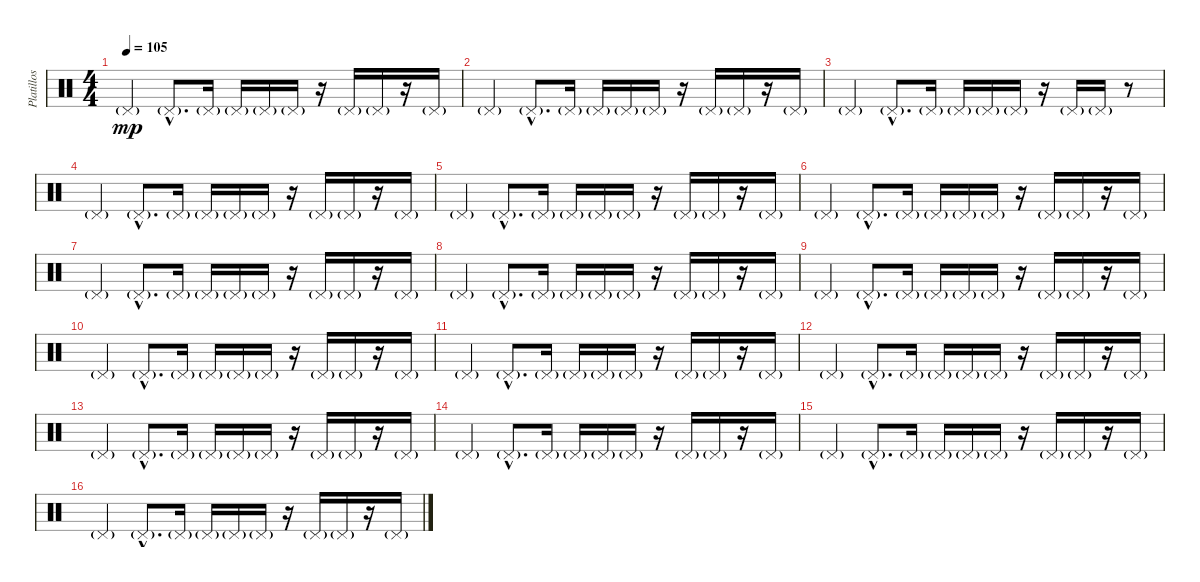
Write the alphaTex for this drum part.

\track ("Platillos" "Platillos") {instrument percussion}
\staff {score}
\articulation defaults
\ts (4 4)
\tempo 105
\clef neutral
\ks c "Pedal Hi-Hat (hit)"{g}.4{dy mp} "Pedal Hi-Hat (hit)"{g hac}.8{d} "Pedal Hi-Hat (hit)"{g}.16 "Pedal Hi-Hat (hit)"{g}.16 "Pedal Hi-Hat (hit)"{g}.16 "Pedal Hi-Hat (hit)"{g}.16
r.16 "Pedal Hi-Hat (hit)"{g}.16 "Pedal Hi-Hat (hit)"{g}.16 r.16 "Pedal Hi-Hat (hit)"{g}.16 |
"Pedal Hi-Hat (hit)"{g}.4 "Pedal Hi-Hat (hit)"{g hac}.8{d} "Pedal Hi-Hat (hit)"{g}.16 "Pedal Hi-Hat (hit)"{g}.16 "Pedal Hi-Hat (hit)"{g}.16 "Pedal Hi-Hat (hit)"{g}.16 r.16 "Pedal Hi-Hat (hit)"{g}.16 "Pedal Hi-Hat (hit)"{g}.16 r.16 "Pedal Hi-Hat (hit)"{g}.16 |
"Pedal Hi-Hat (hit)"{g}.4 "Pedal Hi-Hat (hit)"{g hac}.8{d} "Pedal Hi-Hat (hit)"{g}.16 "Pedal Hi-Hat (hit)"{g}.16 "Pedal Hi-Hat (hit)"{g}.16 "Pedal Hi-Hat (hit)"{g}.16 r.16 "Pedal Hi-Hat (hit)"{g}.16 "Pedal Hi-Hat (hit)"{g}.16 r.8 |
"Pedal Hi-Hat (hit)"{g}.4 "Pedal Hi-Hat (hit)"{g hac}.8{d} "Pedal Hi-Hat (hit)"{g}.16 "Pedal Hi-Hat (hit)"{g}.16 "Pedal Hi-Hat (hit)"{g}.16 "Pedal Hi-Hat (hit)"{g}.16 r.16 "Pedal Hi-Hat (hit)"{g}.16 "Pedal Hi-Hat (hit)"{g}.16 r.16 "Pedal Hi-Hat (hit)"{g}.16 |
"Pedal Hi-Hat (hit)"{g}.4 "Pedal Hi-Hat (hit)"{g hac}.8{d} "Pedal Hi-Hat (hit)"{g}.16 "Pedal Hi-Hat (hit)"{g}.16 "Pedal Hi-Hat (hit)"{g}.16 "Pedal Hi-Hat (hit)"{g}.16 r.16 "Pedal Hi-Hat (hit)"{g}.16 "Pedal Hi-Hat (hit)"{g}.16 r.16 "Pedal Hi-Hat (hit)"{g}.16 |
"Pedal Hi-Hat (hit)"{g}.4 "Pedal Hi-Hat (hit)"{g hac}.8{d} "Pedal Hi-Hat (hit)"{g}.16 "Pedal Hi-Hat (hit)"{g}.16 "Pedal Hi-Hat (hit)"{g}.16 "Pedal Hi-Hat (hit)"{g}.16 r.16 "Pedal Hi-Hat (hit)"{g}.16 "Pedal Hi-Hat (hit)"{g}.16 r.16 "Pedal Hi-Hat (hit)"{g}.16 |
"Pedal Hi-Hat (hit)"{g}.4 "Pedal Hi-Hat (hit)"{g hac}.8{d} "Pedal Hi-Hat (hit)"{g}.16 "Pedal Hi-Hat (hit)"{g}.16 "Pedal Hi-Hat (hit)"{g}.16 "Pedal Hi-Hat (hit)"{g}.16 r.16 "Pedal Hi-Hat (hit)"{g}.16 "Pedal Hi-Hat (hit)"{g}.16 r.16 "Pedal Hi-Hat (hit)"{g}.16 |
"Pedal Hi-Hat (hit)"{g}.4 "Pedal Hi-Hat (hit)"{g hac}.8{d} "Pedal Hi-Hat (hit)"{g}.16 "Pedal Hi-Hat (hit)"{g}.16 "Pedal Hi-Hat (hit)"{g}.16 "Pedal Hi-Hat (hit)"{g}.16 r.16 "Pedal Hi-Hat (hit)"{g}.16 "Pedal Hi-Hat (hit)"{g}.16 r.16 "Pedal Hi-Hat (hit)"{g}.16 |
"Pedal Hi-Hat (hit)"{g}.4 "Pedal Hi-Hat (hit)"{g hac}.8{d} "Pedal Hi-Hat (hit)"{g}.16 "Pedal Hi-Hat (hit)"{g}.16 "Pedal Hi-Hat (hit)"{g}.16 "Pedal Hi-Hat (hit)"{g}.16 r.16 "Pedal Hi-Hat (hit)"{g}.16 "Pedal Hi-Hat (hit)"{g}.16 r.16 "Pedal Hi-Hat (hit)"{g}.16 |
"Pedal Hi-Hat (hit)"{g}.4 "Pedal Hi-Hat (hit)"{g hac}.8{d} "Pedal Hi-Hat (hit)"{g}.16 "Pedal Hi-Hat (hit)"{g}.16 "Pedal Hi-Hat (hit)"{g}.16 "Pedal Hi-Hat (hit)"{g}.16 r.16 "Pedal Hi-Hat (hit)"{g}.16 "Pedal Hi-Hat (hit)"{g}.16 r.16 "Pedal Hi-Hat (hit)"{g}.16 |
"Pedal Hi-Hat (hit)"{g}.4 "Pedal Hi-Hat (hit)"{g hac}.8{d} "Pedal Hi-Hat (hit)"{g}.16 "Pedal Hi-Hat (hit)"{g}.16 "Pedal Hi-Hat (hit)"{g}.16 "Pedal Hi-Hat (hit)"{g}.16 r.16 "Pedal Hi-Hat (hit)"{g}.16 "Pedal Hi-Hat (hit)"{g}.16 r.16 "Pedal Hi-Hat (hit)"{g}.16 |
"Pedal Hi-Hat (hit)"{g}.4 "Pedal Hi-Hat (hit)"{g hac}.8{d} "Pedal Hi-Hat (hit)"{g}.16 "Pedal Hi-Hat (hit)"{g}.16 "Pedal Hi-Hat (hit)"{g}.16 "Pedal Hi-Hat (hit)"{g}.16 r.16 "Pedal Hi-Hat (hit)"{g}.16 "Pedal Hi-Hat (hit)"{g}.16 r.16 "Pedal Hi-Hat (hit)"{g}.16 |
"Pedal Hi-Hat (hit)"{g}.4 "Pedal Hi-Hat (hit)"{g hac}.8{d} "Pedal Hi-Hat (hit)"{g}.16 "Pedal Hi-Hat (hit)"{g}.16 "Pedal Hi-Hat (hit)"{g}.16 "Pedal Hi-Hat (hit)"{g}.16 r.16 "Pedal Hi-Hat (hit)"{g}.16 "Pedal Hi-Hat (hit)"{g}.16 r.16 "Pedal Hi-Hat (hit)"{g}.16 |
"Pedal Hi-Hat (hit)"{g}.4 "Pedal Hi-Hat (hit)"{g hac}.8{d} "Pedal Hi-Hat (hit)"{g}.16 "Pedal Hi-Hat (hit)"{g}.16 "Pedal Hi-Hat (hit)"{g}.16 "Pedal Hi-Hat (hit)"{g}.16 r.16 "Pedal Hi-Hat (hit)"{g}.16 "Pedal Hi-Hat (hit)"{g}.16 r.16 "Pedal Hi-Hat (hit)"{g}.16 |
"Pedal Hi-Hat (hit)"{g}.4 "Pedal Hi-Hat (hit)"{g hac}.8{d} "Pedal Hi-Hat (hit)"{g}.16 "Pedal Hi-Hat (hit)"{g}.16 "Pedal Hi-Hat (hit)"{g}.16 "Pedal Hi-Hat (hit)"{g}.16 r.16 "Pedal Hi-Hat (hit)"{g}.16 "Pedal Hi-Hat (hit)"{g}.16 r.16 "Pedal Hi-Hat (hit)"{g}.16 |
"Pedal Hi-Hat (hit)"{g}.4 "Pedal Hi-Hat (hit)"{g hac}.8{d} "Pedal Hi-Hat (hit)"{g}.16 "Pedal Hi-Hat (hit)"{g}.16 "Pedal Hi-Hat (hit)"{g}.16 "Pedal Hi-Hat (hit)"{g}.16 r.16 "Pedal Hi-Hat (hit)"{g}.16 "Pedal Hi-Hat (hit)"{g}.16 r.16 "Pedal Hi-Hat (hit)"{g}.16
